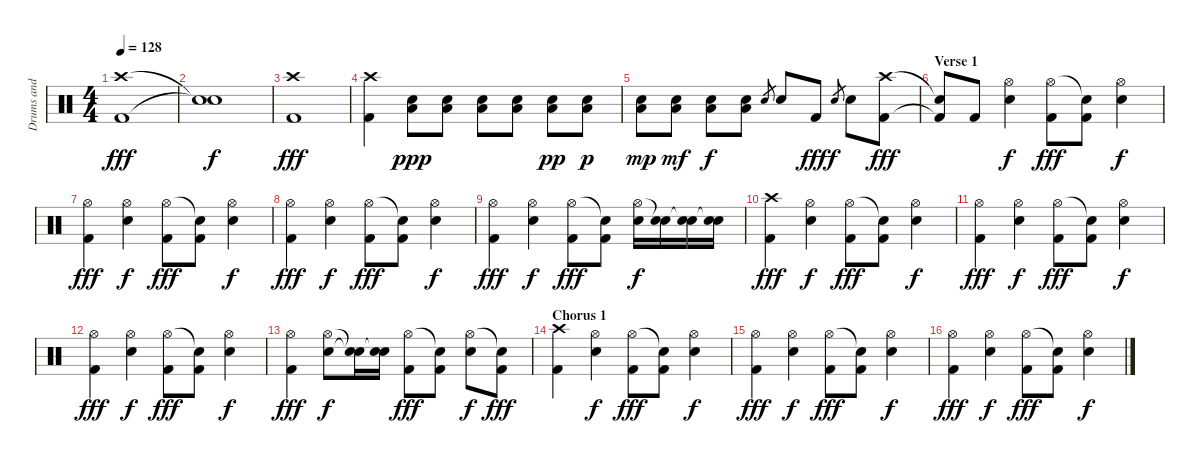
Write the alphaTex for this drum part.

\track ("Drums and Percussion" "Drums and ") {instrument percussion}
\staff {score}
\articulation defaults
\ts (4 4)
\tempo 128
\clef neutral
\ks c
("Crash high (hit)" "Kick (hit) 2").1{dy fff} |
("Snare (hit)"{t} "Snare (hit)"{t}).1{dy f} |
("Crash high (hit)" "Kick (hit) 2").1{dy fff} |
("Crash high (hit)" "Kick (hit) 2").4 ("Electric Snare (hit)" "Low Floor Tom (hit)").8{dy ppp} ("Electric Snare (hit)" "Low Floor Tom (hit)").8 ("Electric Snare (hit)" "Low Floor Tom (hit)").8 ("Electric Snare (hit)" "Low Floor Tom (hit)").8 ("Electric Snare (hit)" "Low Floor Tom (hit)").8{dy pp} ("Electric Snare (hit)" "Low Floor Tom (hit)").8{dy p} |
("Electric Snare (hit)" "Low Floor Tom (hit)").8{dy mp} ("Electric Snare (hit)" "Low Floor Tom (hit)").8{dy mf} ("Electric Snare (hit)" "Low Floor Tom (hit)").8{dy f} ("Electric Snare (hit)" "Low Floor Tom (hit)").8 "Electric Snare (hit)".8{gr} "Electric Snare (hit)".8 "Kick (hit) 2".8{dy fff} "Electric Snare (hit)".8{gr dy f} "Electric Snare (hit)".8 ("Crash high (hit)" "Kick (hit) 2").8{dy fff} |
\section ("" "Verse 1")
("Snare (hit)"{t} "Kick (hit) 2"{t}).8 "Kick (hit) 2".8 ("Hi-Hat (open)" "Electric Snare (hit)").4{dy f} ("Hi-Hat (open)" "Kick (hit) 2").8{dy fff} ("Snare (hit)"{t} "Kick (hit) 2").8 ("Hi-Hat (open)" "Electric Snare (hit)").4{dy f} |
("Hi-Hat (open)" "Kick (hit) 2").4{dy fff} ("Hi-Hat (open)" "Electric Snare (hit)").4{dy f} ("Hi-Hat (open)" "Kick (hit) 2").8{dy fff} ("Snare (hit)"{t} "Kick (hit) 2").8 ("Hi-Hat (open)" "Electric Snare (hit)").4{dy f} |
("Hi-Hat (open)" "Kick (hit) 2").4{dy fff} ("Hi-Hat (open)" "Electric Snare (hit)").4{dy f} ("Hi-Hat (open)" "Kick (hit) 2").8{dy fff} ("Snare (hit)"{t} "Kick (hit) 2").8 ("Hi-Hat (open)" "Electric Snare (hit)").4{dy f} |
("Hi-Hat (open)" "Kick (hit) 2").4{dy fff} ("Hi-Hat (open)" "Electric Snare (hit)").4{dy f} ("Hi-Hat (open)" "Kick (hit) 2").8{dy fff} ("Snare (hit)"{t} "Kick (hit) 2").8 ("Hi-Hat (open)" "Electric Snare (hit)").16{dy f} ("Snare (hit)"{t} "Electric Snare (hit)").16 ("Snare (hit)"{t} "Electric Snare (hit)").16 ("Snare (hit)"{t} "Electric Snare (hit)").16 |
("Crash high (hit)" "Kick (hit) 2").4{dy fff} ("Hi-Hat (open)" "Electric Snare (hit)").4{dy f} ("Hi-Hat (open)" "Kick (hit) 2").8{dy fff} ("Snare (hit)"{t} "Kick (hit) 2").8 ("Hi-Hat (open)" "Electric Snare (hit)").4{dy f} |
("Hi-Hat (open)" "Kick (hit) 2").4{dy fff} ("Hi-Hat (open)" "Electric Snare (hit)").4{dy f} ("Hi-Hat (open)" "Kick (hit) 2").8{dy fff} ("Snare (hit)"{t} "Kick (hit) 2").8 ("Hi-Hat (open)" "Electric Snare (hit)").4{dy f} |
("Hi-Hat (open)" "Kick (hit) 2").4{dy fff} ("Hi-Hat (open)" "Electric Snare (hit)").4{dy f} ("Hi-Hat (open)" "Kick (hit) 2").8{dy fff} ("Snare (hit)"{t} "Kick (hit) 2").8 ("Hi-Hat (open)" "Electric Snare (hit)").4{dy f} |
("Hi-Hat (open)" "Kick (hit) 2").4{dy fff} ("Hi-Hat (open)" "Electric Snare (hit)").8{dy f} ("Snare (hit)"{t} "Snare (hit)"{t}).16 ("Snare (hit)"{t} "Electric Snare (hit)").16 ("Hi-Hat (open)" "Kick (hit) 2").8{dy fff} ("Snare (hit)"{t} "Kick (hit) 2").8 ("Hi-Hat (open)" "Electric Snare (hit)").8{dy f} ("Snare (hit)"{t} "Kick (hit) 2").8{dy fff} |
\section ("" "Chorus 1")
("Crash high (hit)" "Kick (hit) 2").4 ("Hi-Hat (open)" "Electric Snare (hit)").4{dy f} ("Hi-Hat (open)" "Kick (hit) 2").8{dy fff} ("Snare (hit)"{t} "Kick (hit) 2").8 ("Hi-Hat (open)" "Electric Snare (hit)").4{dy f} |
("Hi-Hat (open)" "Kick (hit) 2").4{dy fff} ("Hi-Hat (open)" "Electric Snare (hit)").4{dy f} ("Hi-Hat (open)" "Kick (hit) 2").8{dy fff} ("Snare (hit)"{t} "Kick (hit) 2").8 ("Hi-Hat (open)" "Electric Snare (hit)").4{dy f} |
("Hi-Hat (open)" "Kick (hit) 2").4{dy fff} ("Hi-Hat (open)" "Electric Snare (hit)").4{dy f} ("Hi-Hat (open)" "Kick (hit) 2").8{dy fff} ("Snare (hit)"{t} "Kick (hit) 2").8 ("Hi-Hat (open)" "Electric Snare (hit)").4{dy f}
